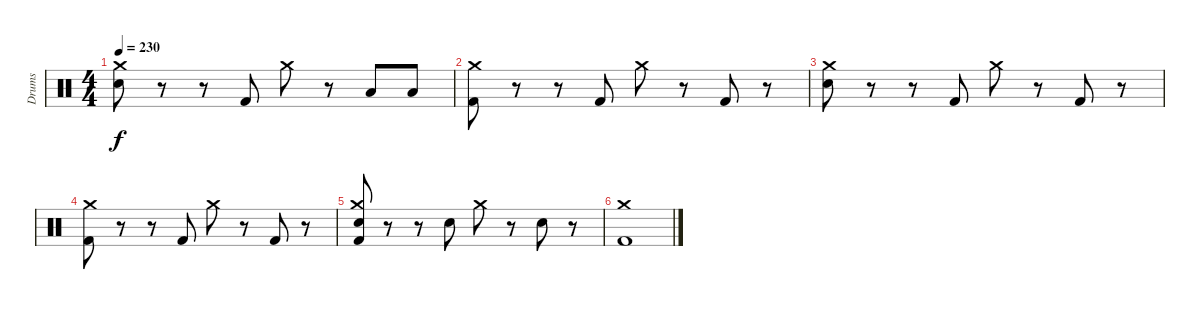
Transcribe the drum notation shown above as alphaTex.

\track ("Drums" "Drums") {instrument percussion}
\staff {score}
\articulation defaults
\ts (4 4)
\tempo 230
\clef neutral
\ks c
("Electric Snare (hit)" "Crash medium (hit)").8{dy f} r.8 r.8 "Kick (hit) 2".8 "Crash medium (hit)".8 r.8 "Low Tom (hit)".8 "Low Tom (hit)".8 |
("Kick (hit) 2" "Crash medium (hit)").8 r.8 r.8 "Kick (hit) 2".8 "Crash medium (hit)".8 r.8 "Kick (hit) 2".8 r.8 |
("Electric Snare (hit)" "Crash medium (hit)").8 r.8 r.8 "Kick (hit) 2".8 "Crash medium (hit)".8 r.8 "Kick (hit) 2".8 r.8 |
("Kick (hit) 2" "Crash medium (hit)").8 r.8 r.8 "Kick (hit) 2".8 "Crash medium (hit)".8 r.8 "Kick (hit) 2".8 r.8 |
("Kick (hit) 2" "Electric Snare (hit)" "Crash medium (hit)").8 r.8 r.8 "Electric Snare (hit)".8 "Crash medium (hit)".8 r.8 "Electric Snare (hit)".8 r.8 |
("Kick (hit) 2" "Crash medium (hit)").1
